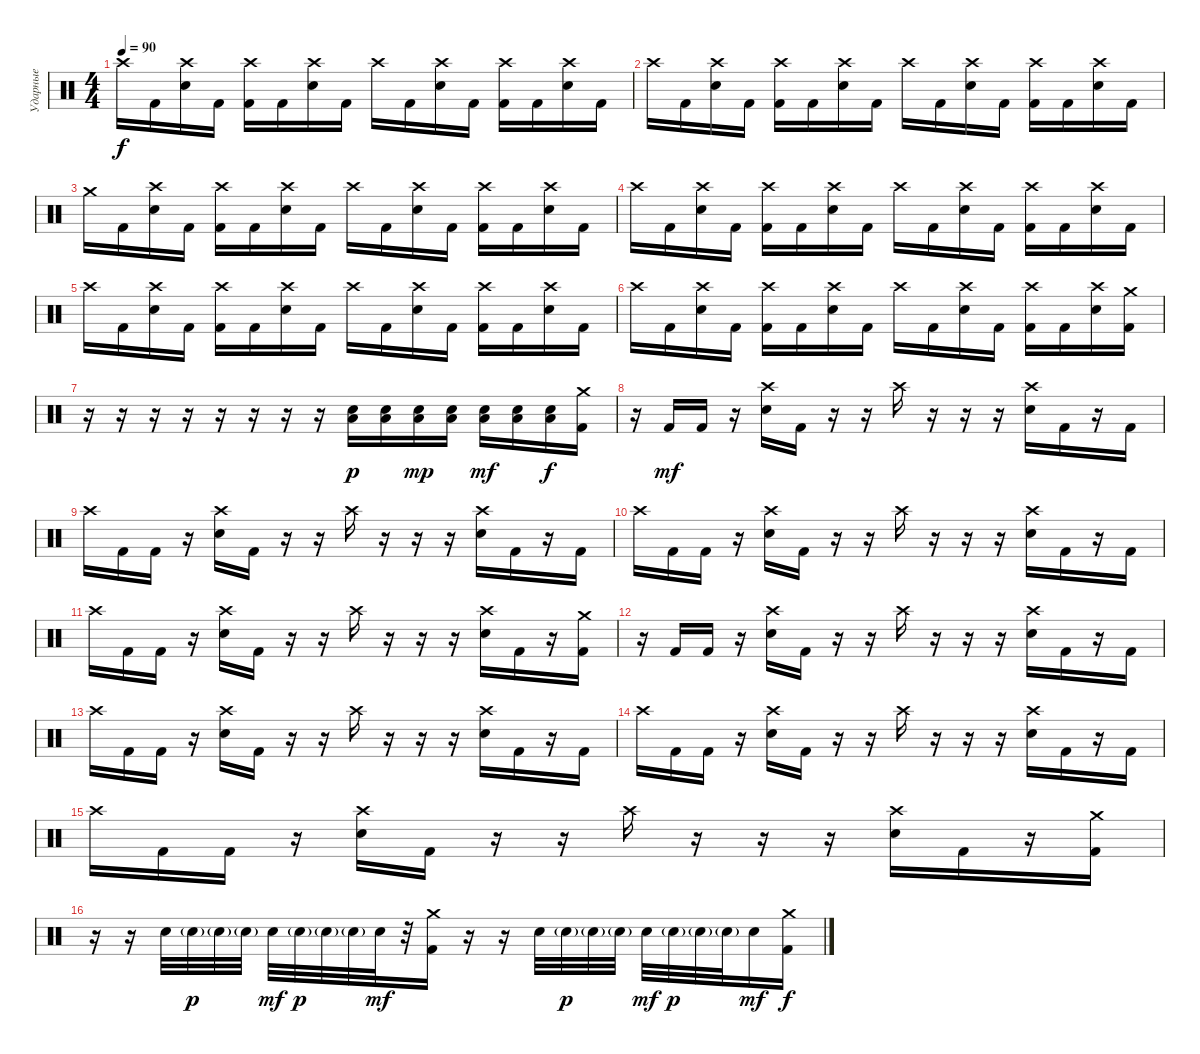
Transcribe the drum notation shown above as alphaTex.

\track ("Ударные" "Ударные") {instrument percussion}
\staff {score}
\articulation defaults
\ts (4 4)
\tempo 90
\clef neutral
\ks c "Crash high (hit)".16{dy f} "Kick (hit) 2".16
("Crash high (hit)" "Electric Snare (hit)").16 "Kick (hit) 2".16 ("Crash high (hit)" "Kick (hit) 2").16 "Kick (hit) 2".16 ("Crash high (hit)" "Electric Snare (hit)").16 "Kick (hit) 2".16 "Crash high (hit)".16 "Kick (hit) 2".16 ("Crash high (hit)" "Electric Snare (hit)").16 "Kick (hit) 2".16 ("Crash high (hit)" "Kick (hit) 2").16 "Kick (hit) 2".16 ("Crash high (hit)" "Electric Snare (hit)").16 "Kick (hit) 2".16 |
"Crash high (hit)".16 "Kick (hit) 2".16 ("Crash high (hit)" "Electric Snare (hit)").16 "Kick (hit) 2".16 ("Crash high (hit)" "Kick (hit) 2").16 "Kick (hit) 2".16 ("Crash high (hit)" "Electric Snare (hit)").16 "Kick (hit) 2".16 "Crash high (hit)".16 "Kick (hit) 2".16 ("Crash high (hit)" "Electric Snare (hit)").16 "Kick (hit) 2".16 ("Crash high (hit)" "Kick (hit) 2").16 "Kick (hit) 2".16 ("Crash high (hit)" "Electric Snare (hit)").16 "Kick (hit) 2".16 |
"Crash medium (hit)".16 "Kick (hit) 2".16 ("Crash high (hit)" "Electric Snare (hit)").16 "Kick (hit) 2".16 ("Crash high (hit)" "Kick (hit) 2").16 "Kick (hit) 2".16 ("Crash high (hit)" "Electric Snare (hit)").16 "Kick (hit) 2".16 "Crash high (hit)".16 "Kick (hit) 2".16 ("Crash high (hit)" "Electric Snare (hit)").16 "Kick (hit) 2".16 ("Crash high (hit)" "Kick (hit) 2").16 "Kick (hit) 2".16 ("Crash high (hit)" "Electric Snare (hit)").16 "Kick (hit) 2".16 |
"Crash high (hit)".16 "Kick (hit) 2".16 ("Crash high (hit)" "Electric Snare (hit)").16 "Kick (hit) 2".16 ("Crash high (hit)" "Kick (hit) 2").16 "Kick (hit) 2".16 ("Crash high (hit)" "Electric Snare (hit)").16 "Kick (hit) 2".16 "Crash high (hit)".16 "Kick (hit) 2".16 ("Crash high (hit)" "Electric Snare (hit)").16 "Kick (hit) 2".16 ("Crash high (hit)" "Kick (hit) 2").16 "Kick (hit) 2".16 ("Crash high (hit)" "Electric Snare (hit)").16 "Kick (hit) 2".16 |
"Crash high (hit)".16 "Kick (hit) 2".16 ("Crash high (hit)" "Electric Snare (hit)").16 "Kick (hit) 2".16 ("Crash high (hit)" "Kick (hit) 2").16 "Kick (hit) 2".16 ("Crash high (hit)" "Electric Snare (hit)").16 "Kick (hit) 2".16 "Crash high (hit)".16 "Kick (hit) 2".16 ("Crash high (hit)" "Electric Snare (hit)").16 "Kick (hit) 2".16 ("Crash high (hit)" "Kick (hit) 2").16 "Kick (hit) 2".16 ("Crash high (hit)" "Electric Snare (hit)").16 "Kick (hit) 2".16 |
"Crash high (hit)".16 "Kick (hit) 2".16 ("Crash high (hit)" "Electric Snare (hit)").16 "Kick (hit) 2".16 ("Crash high (hit)" "Kick (hit) 2").16 "Kick (hit) 2".16 ("Crash high (hit)" "Electric Snare (hit)").16 "Kick (hit) 2".16 "Crash high (hit)".16 "Kick (hit) 2".16 ("Crash high (hit)" "Electric Snare (hit)").16 "Kick (hit) 2".16 ("Crash high (hit)" "Kick (hit) 2").16 "Kick (hit) 2".16 ("Crash high (hit)" "Electric Snare (hit)").16 ("Crash medium (hit)" "Kick (hit) 2").16 |
r.16 r.16 r.16 r.16 r.16 r.16 r.16 r.16 ("Electric Snare (hit)" "Low Floor Tom (hit)").16{dy p} ("Electric Snare (hit)" "Low Floor Tom (hit)").16 ("Electric Snare (hit)" "Low Floor Tom (hit)").16{dy mp} ("Electric Snare (hit)" "Low Floor Tom (hit)").16 ("Electric Snare (hit)" "Low Floor Tom (hit)").16{dy mf} ("Electric Snare (hit)" "Low Floor Tom (hit)").16 ("Electric Snare (hit)" "Low Floor Tom (hit)").16{dy f} ("Crash medium (hit)" "Kick (hit) 2").16 |
r.16 "Kick (hit) 2".16{dy mf} "Kick (hit) 2".16 r.16 ("Crash high (hit)" "Electric Snare (hit)").16 "Kick (hit) 2".16 r.16 r.16 "Crash high (hit)".16 r.16 r.16 r.16 ("Crash high (hit)" "Electric Snare (hit)").16 "Kick (hit) 2".16 r.16 "Kick (hit) 2".16 |
"Crash high (hit)".16 "Kick (hit) 2".16 "Kick (hit) 2".16 r.16 ("Crash high (hit)" "Electric Snare (hit)").16 "Kick (hit) 2".16 r.16 r.16 "Crash high (hit)".16 r.16 r.16 r.16 ("Crash high (hit)" "Electric Snare (hit)").16 "Kick (hit) 2".16 r.16 "Kick (hit) 2".16 |
"Crash high (hit)".16 "Kick (hit) 2".16 "Kick (hit) 2".16 r.16 ("Crash high (hit)" "Electric Snare (hit)").16 "Kick (hit) 2".16 r.16 r.16 "Crash high (hit)".16 r.16 r.16 r.16 ("Crash high (hit)" "Electric Snare (hit)").16 "Kick (hit) 2".16 r.16 "Kick (hit) 2".16 |
"Crash high (hit)".16 "Kick (hit) 2".16 "Kick (hit) 2".16 r.16 ("Crash high (hit)" "Electric Snare (hit)").16 "Kick (hit) 2".16 r.16 r.16 "Crash high (hit)".16 r.16 r.16 r.16 ("Crash high (hit)" "Electric Snare (hit)").16 "Kick (hit) 2".16 r.16 ("Crash medium (hit)" "Kick (hit) 2").16 |
r.16 "Kick (hit) 2".16 "Kick (hit) 2".16 r.16 ("Crash high (hit)" "Electric Snare (hit)").16 "Kick (hit) 2".16 r.16 r.16 "Crash high (hit)".16 r.16 r.16 r.16 ("Crash high (hit)" "Electric Snare (hit)").16 "Kick (hit) 2".16 r.16 "Kick (hit) 2".16 |
"Crash high (hit)".16 "Kick (hit) 2".16 "Kick (hit) 2".16 r.16 ("Crash high (hit)" "Electric Snare (hit)").16 "Kick (hit) 2".16 r.16 r.16 "Crash high (hit)".16 r.16 r.16 r.16 ("Crash high (hit)" "Electric Snare (hit)").16 "Kick (hit) 2".16 r.16 "Kick (hit) 2".16 |
"Crash high (hit)".16 "Kick (hit) 2".16 "Kick (hit) 2".16 r.16 ("Crash high (hit)" "Electric Snare (hit)").16 "Kick (hit) 2".16 r.16 r.16 "Crash high (hit)".16 r.16 r.16 r.16 ("Crash high (hit)" "Electric Snare (hit)").16 "Kick (hit) 2".16 r.16 "Kick (hit) 2".16 |
"Crash high (hit)".16 "Kick (hit) 2".16 "Kick (hit) 2".16 r.16 ("Crash high (hit)" "Electric Snare (hit)").16 "Kick (hit) 2".16 r.16 r.16 "Crash high (hit)".16 r.16 r.16 r.16 ("Crash high (hit)" "Electric Snare (hit)").16 "Kick (hit) 2".16 r.16 ("Crash medium (hit)" "Kick (hit) 2").16 |
r.16 r.16 "Electric Snare (hit)".32 "Electric Snare (hit)"{g}.32{dy p} "Electric Snare (hit)"{g}.32 "Electric Snare (hit)"{g}.32 "Electric Snare (hit)".32{dy mf} "Electric Snare (hit)"{g}.32{dy p} "Electric Snare (hit)"{g}.32 "Electric Snare (hit)"{g}.32 "Electric Snare (hit)".32{dy mf} r.32 ("Crash medium (hit)" "Kick (hit) 2").16 r.16 r.16 "Electric Snare (hit)".32 "Electric Snare (hit)"{g}.32{dy p} "Electric Snare (hit)"{g}.32 "Electric Snare (hit)"{g}.32 "Electric Snare (hit)".32{dy mf} "Electric Snare (hit)"{g}.32{dy p} "Electric Snare (hit)"{g}.32 "Electric Snare (hit)"{g}.32 "Electric Snare (hit)".16{dy mf} ("Crash medium (hit)" "Kick (hit) 2").16{dy f}
